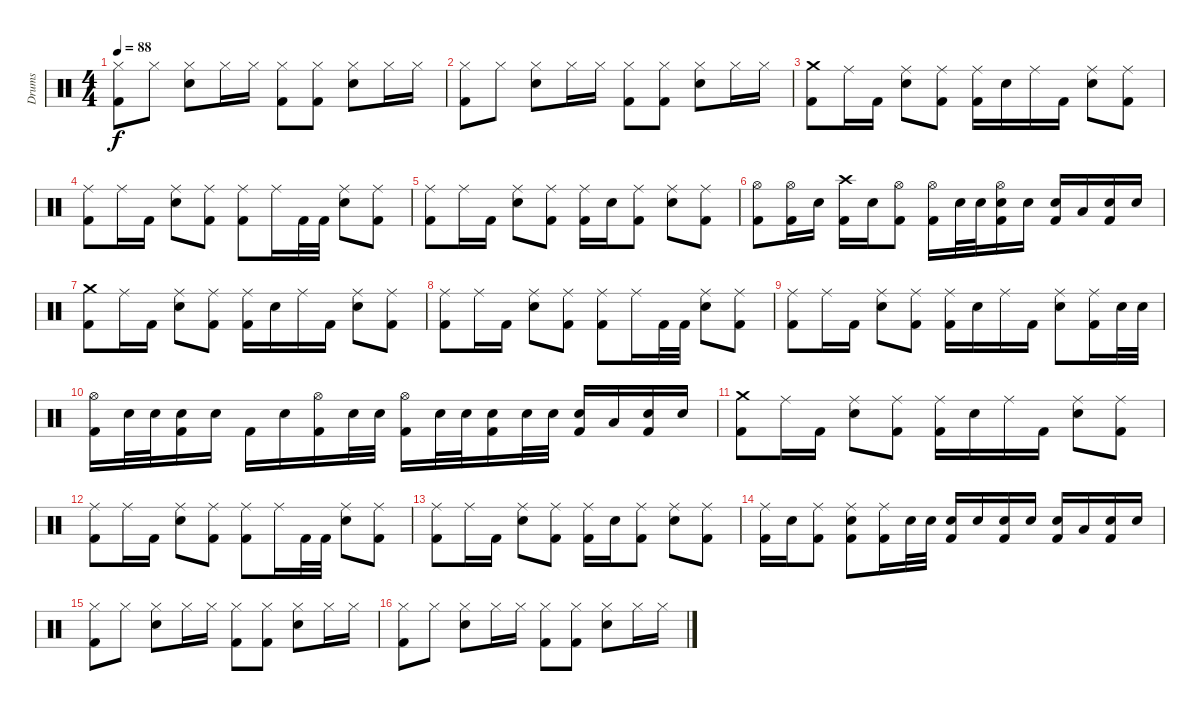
\track ("Drums" "Drums") {instrument percussion}
\staff {score}
\articulation defaults
\ts (4 4)
\tempo 88
\clef neutral
\ks c
("Hi-Hat (closed)" "Kick (hit) 2").8{dy f} "Hi-Hat (closed)".8 ("Hi-Hat (closed)" "Electric Snare (hit)").8 "Hi-Hat (closed)".16 "Hi-Hat (closed)".16 ("Hi-Hat (closed)" "Kick (hit) 2").8 ("Hi-Hat (closed)" "Kick (hit) 2").8 ("Hi-Hat (closed)" "Electric Snare (hit)").8 "Hi-Hat (closed)".16 "Hi-Hat (closed)".16 |
("Hi-Hat (closed)" "Kick (hit) 2").8 "Hi-Hat (closed)".8 ("Hi-Hat (closed)" "Electric Snare (hit)").8 "Hi-Hat (closed)".16 "Hi-Hat (closed)".16 ("Hi-Hat (closed)" "Kick (hit) 2").8 ("Hi-Hat (closed)" "Kick (hit) 2").8 ("Hi-Hat (closed)" "Electric Snare (hit)").8 "Hi-Hat (closed)".16 "Hi-Hat (closed)".16 |
("Crash medium (hit)" "Kick (hit) 2").8{volume 16} "Ride (middle)".16 "Kick (hit) 2".16 ("Ride (middle)" "Electric Snare (hit)").8 ("Ride (middle)" "Kick (hit) 2").8 ("Ride (middle)" "Kick (hit) 2").16 "Electric Snare (hit)".16 "Ride (middle)".16 "Kick (hit) 2".16 ("Ride (middle)" "Electric Snare (hit)").8 ("Ride (middle)" "Kick (hit) 2").8 |
("Ride (middle)" "Kick (hit) 2").8 "Ride (middle)".16 "Kick (hit) 2".16 ("Ride (middle)" "Electric Snare (hit)").8 ("Ride (middle)" "Kick (hit) 2").8 ("Ride (middle)" "Kick (hit) 2").8 "Ride (middle)".16 "Kick (hit) 2".32 "Kick (hit) 2".32 ("Ride (middle)" "Electric Snare (hit)").8 ("Ride (middle)" "Kick (hit) 2").8 |
("Ride (middle)" "Kick (hit) 2").8 "Ride (middle)".16 "Kick (hit) 2".16 ("Ride (middle)" "Electric Snare (hit)").8 ("Ride (middle)" "Kick (hit) 2").8 ("Ride (middle)" "Kick (hit) 2").16 "Electric Snare (hit)".16 ("Ride (middle)" "Kick (hit) 2").8 ("Ride (middle)" "Electric Snare (hit)").8 ("Ride (middle)" "Kick (hit) 2").8 |
("Hi-Hat (open)" "Kick (hit) 2").8 ("Hi-Hat (open)" "Kick (hit) 2").16 "Electric Snare (hit)".16 ("Crash high (hit)" "Kick (hit) 2").16 "Electric Snare (hit)".16 ("Hi-Hat (open)" "Kick (hit) 2").8 ("Hi-Hat (open)" "Kick (hit) 2").16 "Electric Snare (hit)".32 "Electric Snare (hit)".32 ("Hi-Hat (open)" "Electric Snare (hit)" "Kick (hit) 2").16 "Electric Snare (hit)".16 ("Electric Snare (hit)" "Kick (hit) 2").16 "Low Tom (hit)".16 ("Electric Snare (hit)" "Kick (hit) 2").16 "Electric Snare (hit)".16 |
("Crash medium (hit)" "Kick (hit) 2").8 "Ride (middle)".16 "Kick (hit) 2".16 ("Ride (middle)" "Electric Snare (hit)").8 ("Ride (middle)" "Kick (hit) 2").8 ("Ride (middle)" "Kick (hit) 2").16 "Electric Snare (hit)".16 "Ride (middle)".16 "Kick (hit) 2".16 ("Ride (middle)" "Electric Snare (hit)").8 ("Ride (middle)" "Kick (hit) 2").8 |
("Ride (middle)" "Kick (hit) 2").8 "Ride (middle)".16 "Kick (hit) 2".16 ("Ride (middle)" "Electric Snare (hit)").8 ("Ride (middle)" "Kick (hit) 2").8 ("Ride (middle)" "Kick (hit) 2").8 "Ride (middle)".16 "Kick (hit) 2".32 "Kick (hit) 2".32 ("Ride (middle)" "Electric Snare (hit)").8 ("Ride (middle)" "Kick (hit) 2").8 |
("Ride (middle)" "Kick (hit) 2").8 "Ride (middle)".16 "Kick (hit) 2".16 ("Ride (middle)" "Electric Snare (hit)").8 ("Ride (middle)" "Kick (hit) 2").8 ("Ride (middle)" "Kick (hit) 2").16 "Electric Snare (hit)".16 "Ride (middle)".16 "Kick (hit) 2".16 ("Ride (middle)" "Electric Snare (hit)").8 ("Ride (middle)" "Kick (hit) 2").16 "Electric Snare (hit)".32 "Electric Snare (hit)".32 |
("Hi-Hat (open)" "Kick (hit) 2").16 "Electric Snare (hit)".32 "Electric Snare (hit)".32 ("Electric Snare (hit)" "Kick (hit) 2").16 "Electric Snare (hit)".16 "Kick (hit) 2".16 "Electric Snare (hit)".16 ("Hi-Hat (open)" "Kick (hit) 2").16 "Electric Snare (hit)".32 "Electric Snare (hit)".32 ("Hi-Hat (open)" "Kick (hit) 2").16 "Electric Snare (hit)".32 "Electric Snare (hit)".32 ("Electric Snare (hit)" "Kick (hit) 2").16 "Electric Snare (hit)".32 "Electric Snare (hit)".32 ("Electric Snare (hit)" "Kick (hit) 2").16 "Low Tom (hit)".16 ("Electric Snare (hit)" "Kick (hit) 2").16 "Electric Snare (hit)".16 |
("Crash medium (hit)" "Kick (hit) 2").8 "Ride (middle)".16 "Kick (hit) 2".16 ("Ride (middle)" "Electric Snare (hit)").8 ("Ride (middle)" "Kick (hit) 2").8 ("Ride (middle)" "Kick (hit) 2").16 "Electric Snare (hit)".16 "Ride (middle)".16 "Kick (hit) 2".16 ("Ride (middle)" "Electric Snare (hit)").8 ("Ride (middle)" "Kick (hit) 2").8 |
("Ride (middle)" "Kick (hit) 2").8 "Ride (middle)".16 "Kick (hit) 2".16 ("Ride (middle)" "Electric Snare (hit)").8 ("Ride (middle)" "Kick (hit) 2").8 ("Ride (middle)" "Kick (hit) 2").8 "Ride (middle)".16 "Kick (hit) 2".32 "Kick (hit) 2".32 ("Ride (middle)" "Electric Snare (hit)").8 ("Ride (middle)" "Kick (hit) 2").8 |
("Ride (middle)" "Kick (hit) 2").8 "Ride (middle)".16 "Kick (hit) 2".16 ("Ride (middle)" "Electric Snare (hit)").8 ("Ride (middle)" "Kick (hit) 2").8 ("Ride (middle)" "Kick (hit) 2").16 "Electric Snare (hit)".16 ("Ride (middle)" "Kick (hit) 2").8 ("Ride (middle)" "Electric Snare (hit)").8 ("Ride (middle)" "Kick (hit) 2").8 |
("Ride (middle)" "Kick (hit) 2").16 "Electric Snare (hit)".16 ("Ride (middle)" "Kick (hit) 2").8 ("Ride (middle)" "Electric Snare (hit)" "Kick (hit) 2").8 ("Ride (middle)" "Kick (hit) 2").16 "Electric Snare (hit)".32 "Electric Snare (hit)".32 ("Electric Snare (hit)" "Kick (hit) 2").16 "Electric Snare (hit)".16 ("Electric Snare (hit)" "Kick (hit) 2").16 "Electric Snare (hit)".16 ("Electric Snare (hit)" "Kick (hit) 2").16 "Low Tom (hit)".16 ("Electric Snare (hit)" "Kick (hit) 2").16 "Electric Snare (hit)".16 |
("Hi-Hat (closed)" "Kick (hit) 2").8 "Hi-Hat (closed)".8 ("Hi-Hat (closed)" "Electric Snare (hit)").8 "Hi-Hat (closed)".16 "Hi-Hat (closed)".16 ("Hi-Hat (closed)" "Kick (hit) 2").8 ("Hi-Hat (closed)" "Kick (hit) 2").8 ("Hi-Hat (closed)" "Electric Snare (hit)").8 "Hi-Hat (closed)".16 "Hi-Hat (closed)".16 |
("Hi-Hat (closed)" "Kick (hit) 2").8 "Hi-Hat (closed)".8 ("Hi-Hat (closed)" "Electric Snare (hit)").8 "Hi-Hat (closed)".16 "Hi-Hat (closed)".16 ("Hi-Hat (closed)" "Kick (hit) 2").8 ("Hi-Hat (closed)" "Kick (hit) 2").8 ("Hi-Hat (closed)" "Electric Snare (hit)").8 "Hi-Hat (closed)".16 "Hi-Hat (closed)".16
